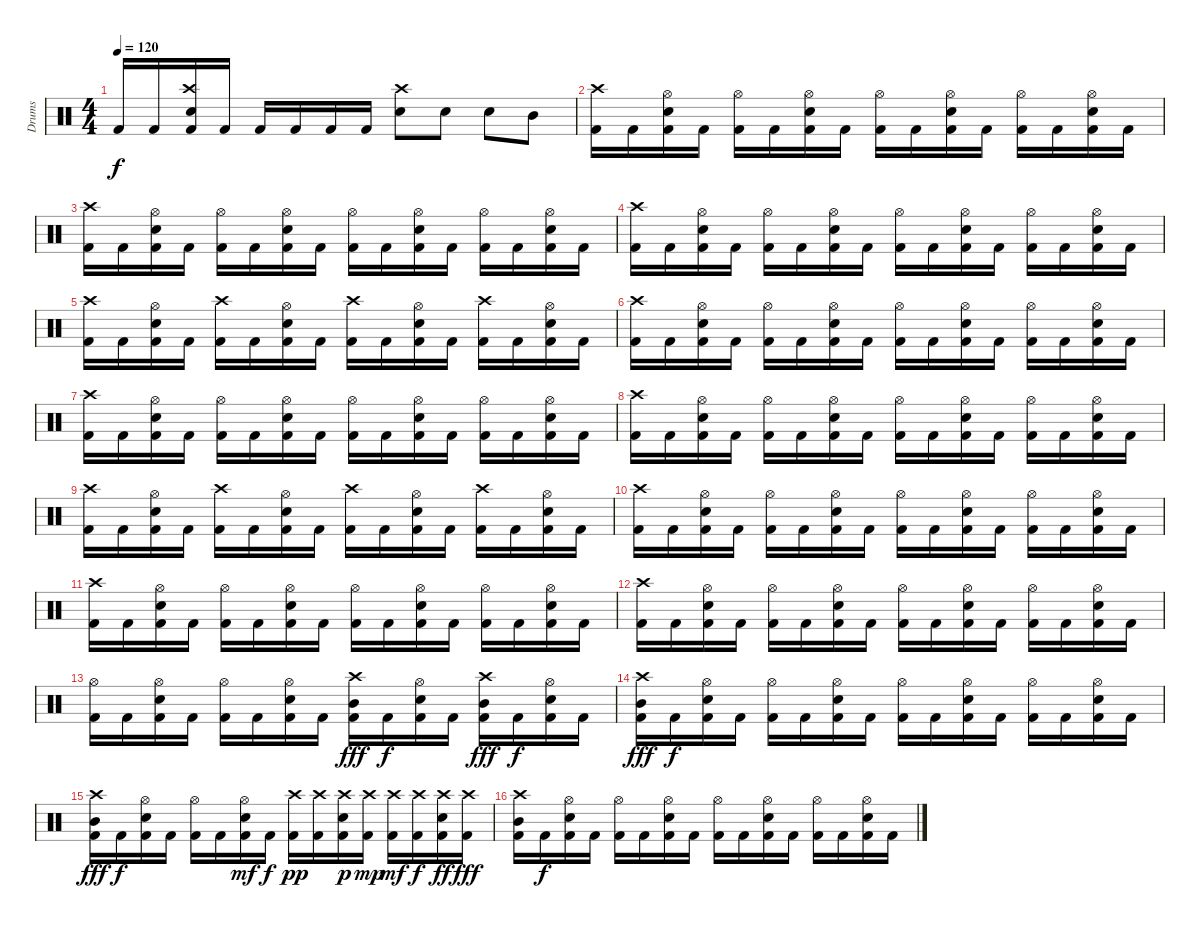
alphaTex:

\track ("Drums" "Drums") {instrument percussion}
\staff {score}
\articulation defaults
\ts (4 4)
\tempo 120
\clef neutral
\ks c "Kick (hit) 2".16{dy f} "Kick (hit) 2".16
("Crash high (hit)" "Snare (hit) 2" "Kick (hit) 2").16 "Kick (hit) 2".16 "Kick (hit) 2".16 "Kick (hit) 2".16 "Kick (hit) 2".16 "Kick (hit) 2".16 ("Crash high (hit)" "Snare (hit) 2").8 "Snare (hit) 2".8 "Snare (hit) 2".8 "Mid Tom (hit)".8 |
("Crash high (hit)" "Kick (hit) 2").16 "Kick (hit) 2".16 ("Hi-Hat (open)" "Snare (hit) 2" "Kick (hit) 2").16 "Kick (hit) 2".16 ("Hi-Hat (open)" "Kick (hit) 2").16 "Kick (hit) 2".16 ("Hi-Hat (open)" "Snare (hit) 2" "Kick (hit) 2").16 "Kick (hit) 2".16 ("Hi-Hat (open)" "Kick (hit) 2").16 "Kick (hit) 2".16 ("Hi-Hat (open)" "Snare (hit) 2" "Kick (hit) 2").16 "Kick (hit) 2".16 ("Hi-Hat (open)" "Kick (hit) 2").16 "Kick (hit) 2".16 ("Hi-Hat (open)" "Snare (hit) 2" "Kick (hit) 2").16 "Kick (hit) 2".16 |
("Crash high (hit)" "Kick (hit) 2").16 "Kick (hit) 2".16 ("Hi-Hat (open)" "Snare (hit) 2" "Kick (hit) 2").16 "Kick (hit) 2".16 ("Hi-Hat (open)" "Kick (hit) 2").16 "Kick (hit) 2".16 ("Hi-Hat (open)" "Snare (hit) 2" "Kick (hit) 2").16 "Kick (hit) 2".16 ("Hi-Hat (open)" "Kick (hit) 2").16 "Kick (hit) 2".16 ("Hi-Hat (open)" "Snare (hit) 2" "Kick (hit) 2").16 "Kick (hit) 2".16 ("Hi-Hat (open)" "Kick (hit) 2").16 "Kick (hit) 2".16 ("Hi-Hat (open)" "Snare (hit) 2" "Kick (hit) 2").16 "Kick (hit) 2".16 |
("Crash high (hit)" "Kick (hit) 2").16 "Kick (hit) 2".16 ("Hi-Hat (open)" "Snare (hit) 2" "Kick (hit) 2").16 "Kick (hit) 2".16 ("Hi-Hat (open)" "Kick (hit) 2").16 "Kick (hit) 2".16 ("Hi-Hat (open)" "Snare (hit) 2" "Kick (hit) 2").16 "Kick (hit) 2".16 ("Hi-Hat (open)" "Kick (hit) 2").16 "Kick (hit) 2".16 ("Hi-Hat (open)" "Snare (hit) 2" "Kick (hit) 2").16 "Kick (hit) 2".16 ("Hi-Hat (open)" "Kick (hit) 2").16 "Kick (hit) 2".16 ("Hi-Hat (open)" "Snare (hit) 2" "Kick (hit) 2").16 "Kick (hit) 2".16 |
("Crash high (hit)" "Kick (hit) 2").16 "Kick (hit) 2".16 ("Hi-Hat (open)" "Snare (hit) 2" "Kick (hit) 2").16 "Kick (hit) 2".16 ("Crash high (hit)" "Kick (hit) 2").16 "Kick (hit) 2".16 ("Hi-Hat (open)" "Snare (hit) 2" "Kick (hit) 2").16 "Kick (hit) 2".16 ("Crash high (hit)" "Kick (hit) 2").16 "Kick (hit) 2".16 ("Hi-Hat (open)" "Snare (hit) 2" "Kick (hit) 2").16 "Kick (hit) 2".16 ("Crash high (hit)" "Kick (hit) 2").16 "Kick (hit) 2".16 ("Hi-Hat (open)" "Snare (hit) 2" "Kick (hit) 2").16 "Kick (hit) 2".16 |
("Crash high (hit)" "Kick (hit) 2").16 "Kick (hit) 2".16 ("Hi-Hat (open)" "Snare (hit) 2" "Kick (hit) 2").16 "Kick (hit) 2".16 ("Hi-Hat (open)" "Kick (hit) 2").16 "Kick (hit) 2".16 ("Hi-Hat (open)" "Snare (hit) 2" "Kick (hit) 2").16 "Kick (hit) 2".16 ("Hi-Hat (open)" "Kick (hit) 2").16 "Kick (hit) 2".16 ("Hi-Hat (open)" "Snare (hit) 2" "Kick (hit) 2").16 "Kick (hit) 2".16 ("Hi-Hat (open)" "Kick (hit) 2").16 "Kick (hit) 2".16 ("Hi-Hat (open)" "Snare (hit) 2" "Kick (hit) 2").16 "Kick (hit) 2".16 |
("Crash high (hit)" "Kick (hit) 2").16 "Kick (hit) 2".16 ("Hi-Hat (open)" "Snare (hit) 2" "Kick (hit) 2").16 "Kick (hit) 2".16 ("Hi-Hat (open)" "Kick (hit) 2").16 "Kick (hit) 2".16 ("Hi-Hat (open)" "Snare (hit) 2" "Kick (hit) 2").16 "Kick (hit) 2".16 ("Hi-Hat (open)" "Kick (hit) 2").16 "Kick (hit) 2".16 ("Hi-Hat (open)" "Snare (hit) 2" "Kick (hit) 2").16 "Kick (hit) 2".16 ("Hi-Hat (open)" "Kick (hit) 2").16 "Kick (hit) 2".16 ("Hi-Hat (open)" "Snare (hit) 2" "Kick (hit) 2").16 "Kick (hit) 2".16 |
("Crash high (hit)" "Kick (hit) 2").16 "Kick (hit) 2".16 ("Hi-Hat (open)" "Snare (hit) 2" "Kick (hit) 2").16 "Kick (hit) 2".16 ("Hi-Hat (open)" "Kick (hit) 2").16 "Kick (hit) 2".16 ("Hi-Hat (open)" "Snare (hit) 2" "Kick (hit) 2").16 "Kick (hit) 2".16 ("Hi-Hat (open)" "Kick (hit) 2").16 "Kick (hit) 2".16 ("Hi-Hat (open)" "Snare (hit) 2" "Kick (hit) 2").16 "Kick (hit) 2".16 ("Hi-Hat (open)" "Kick (hit) 2").16 "Kick (hit) 2".16 ("Hi-Hat (open)" "Snare (hit) 2" "Kick (hit) 2").16 "Kick (hit) 2".16 |
("Crash high (hit)" "Kick (hit) 2").16 "Kick (hit) 2".16 ("Hi-Hat (open)" "Snare (hit) 2" "Kick (hit) 2").16 "Kick (hit) 2".16 ("Crash high (hit)" "Kick (hit) 2").16 "Kick (hit) 2".16 ("Hi-Hat (open)" "Snare (hit) 2" "Kick (hit) 2").16 "Kick (hit) 2".16 ("Crash high (hit)" "Kick (hit) 2").16 "Kick (hit) 2".16 ("Hi-Hat (open)" "Snare (hit) 2" "Kick (hit) 2").16 "Kick (hit) 2".16 ("Crash high (hit)" "Kick (hit) 2").16 "Kick (hit) 2".16 ("Hi-Hat (open)" "Snare (hit) 2" "Kick (hit) 2").16 "Kick (hit) 2".16 |
("Crash high (hit)" "Kick (hit) 2").16 "Kick (hit) 2".16 ("Hi-Hat (open)" "Snare (hit) 2" "Kick (hit) 2").16 "Kick (hit) 2".16 ("Hi-Hat (open)" "Kick (hit) 2").16 "Kick (hit) 2".16 ("Hi-Hat (open)" "Snare (hit) 2" "Kick (hit) 2").16 "Kick (hit) 2".16 ("Hi-Hat (open)" "Kick (hit) 2").16 "Kick (hit) 2".16 ("Hi-Hat (open)" "Snare (hit) 2" "Kick (hit) 2").16 "Kick (hit) 2".16 ("Hi-Hat (open)" "Kick (hit) 2").16 "Kick (hit) 2".16 ("Hi-Hat (open)" "Snare (hit) 2" "Kick (hit) 2").16 "Kick (hit) 2".16 |
("Crash high (hit)" "Kick (hit) 2").16 "Kick (hit) 2".16 ("Hi-Hat (open)" "Snare (hit) 2" "Kick (hit) 2").16 "Kick (hit) 2".16 ("Hi-Hat (open)" "Kick (hit) 2").16 "Kick (hit) 2".16 ("Hi-Hat (open)" "Snare (hit) 2" "Kick (hit) 2").16 "Kick (hit) 2".16 ("Hi-Hat (open)" "Kick (hit) 2").16 "Kick (hit) 2".16 ("Hi-Hat (open)" "Snare (hit) 2" "Kick (hit) 2").16 "Kick (hit) 2".16 ("Hi-Hat (open)" "Kick (hit) 2").16 "Kick (hit) 2".16 ("Hi-Hat (open)" "Snare (hit) 2" "Kick (hit) 2").16 "Kick (hit) 2".16 |
("Crash high (hit)" "Kick (hit) 2").16 "Kick (hit) 2".16 ("Hi-Hat (open)" "Snare (hit) 2" "Kick (hit) 2").16 "Kick (hit) 2".16 ("Hi-Hat (open)" "Kick (hit) 2").16 "Kick (hit) 2".16 ("Hi-Hat (open)" "Snare (hit) 2" "Kick (hit) 2").16 "Kick (hit) 2".16 ("Hi-Hat (open)" "Kick (hit) 2").16 "Kick (hit) 2".16 ("Hi-Hat (open)" "Snare (hit) 2" "Kick (hit) 2").16 "Kick (hit) 2".16 ("Hi-Hat (open)" "Kick (hit) 2").16 "Kick (hit) 2".16 ("Hi-Hat (open)" "Snare (hit) 2" "Kick (hit) 2").16 "Kick (hit) 2".16 |
("Hi-Hat (open)" "Kick (hit) 2").16 "Kick (hit) 2".16 ("Hi-Hat (open)" "Snare (hit) 2" "Kick (hit) 2").16 "Kick (hit) 2".16 ("Hi-Hat (open)" "Kick (hit) 2").16 "Kick (hit) 2".16 ("Hi-Hat (open)" "Snare (hit) 2" "Kick (hit) 2").16 "Kick (hit) 2".16 ("Mid Tom (hit)" "Crash high (hit)" "Kick (hit) 2").16{dy fff} "Kick (hit) 2".16{dy f} ("Hi-Hat (open)" "Snare (hit) 2" "Kick (hit) 2").16 "Kick (hit) 2".16 ("Mid Tom (hit)" "Crash high (hit)" "Kick (hit) 2").16{dy fff} "Kick (hit) 2".16{dy f} ("Hi-Hat (open)" "Snare (hit) 2" "Kick (hit) 2").16 "Kick (hit) 2".16 |
("Mid Tom (hit)" "Crash high (hit)" "Kick (hit) 2").16{dy fff} "Kick (hit) 2".16{dy f} ("Hi-Hat (open)" "Snare (hit) 2" "Kick (hit) 2").16 "Kick (hit) 2".16 ("Hi-Hat (open)" "Kick (hit) 2").16 "Kick (hit) 2".16 ("Hi-Hat (open)" "Snare (hit) 2" "Kick (hit) 2").16 "Kick (hit) 2".16 ("Hi-Hat (open)" "Kick (hit) 2").16 "Kick (hit) 2".16 ("Hi-Hat (open)" "Snare (hit) 2" "Kick (hit) 2").16 "Kick (hit) 2".16 ("Hi-Hat (open)" "Kick (hit) 2").16 "Kick (hit) 2".16 ("Hi-Hat (open)" "Snare (hit) 2" "Kick (hit) 2").16 "Kick (hit) 2".16 |
("Mid Tom (hit)" "Crash high (hit)" "Kick (hit) 2").16{dy fff} "Kick (hit) 2".16{dy f} ("Hi-Hat (open)" "Snare (hit) 2" "Kick (hit) 2").16 "Kick (hit) 2".16 ("Hi-Hat (open)" "Kick (hit) 2").16 "Kick (hit) 2".16 ("Hi-Hat (open)" "Snare (hit) 2" "Kick (hit) 2").16{dy mf} "Kick (hit) 2".16{dy f} ("Crash high (hit)" "Kick (hit) 2").16{dy pp} ("Crash high (hit)" "Kick (hit) 2").16 ("Crash high (hit)" "Snare (hit) 2" "Kick (hit) 2").16{dy p} ("Crash high (hit)" "Kick (hit) 2").16{dy mp} ("Crash high (hit)" "Kick (hit) 2").16{dy mf} ("Crash high (hit)" "Kick (hit) 2").16{dy f} ("Crash high (hit)" "Snare (hit) 2" "Kick (hit) 2").16{dy ff} ("Crash high (hit)" "Kick (hit) 2").16{dy fff} |
("Crash high (hit)" "Mid Tom (hit)" "Kick (hit) 2").16 "Kick (hit) 2".16{dy f} ("Hi-Hat (open)" "Snare (hit) 2" "Kick (hit) 2").16 "Kick (hit) 2".16 ("Hi-Hat (open)" "Kick (hit) 2").16 "Kick (hit) 2".16 ("Hi-Hat (open)" "Snare (hit) 2" "Kick (hit) 2").16 "Kick (hit) 2".16 ("Hi-Hat (open)" "Kick (hit) 2").16 "Kick (hit) 2".16 ("Hi-Hat (open)" "Snare (hit) 2" "Kick (hit) 2").16 "Kick (hit) 2".16 ("Hi-Hat (open)" "Kick (hit) 2").16 "Kick (hit) 2".16 ("Hi-Hat (open)" "Snare (hit) 2" "Kick (hit) 2").16 "Kick (hit) 2".16
